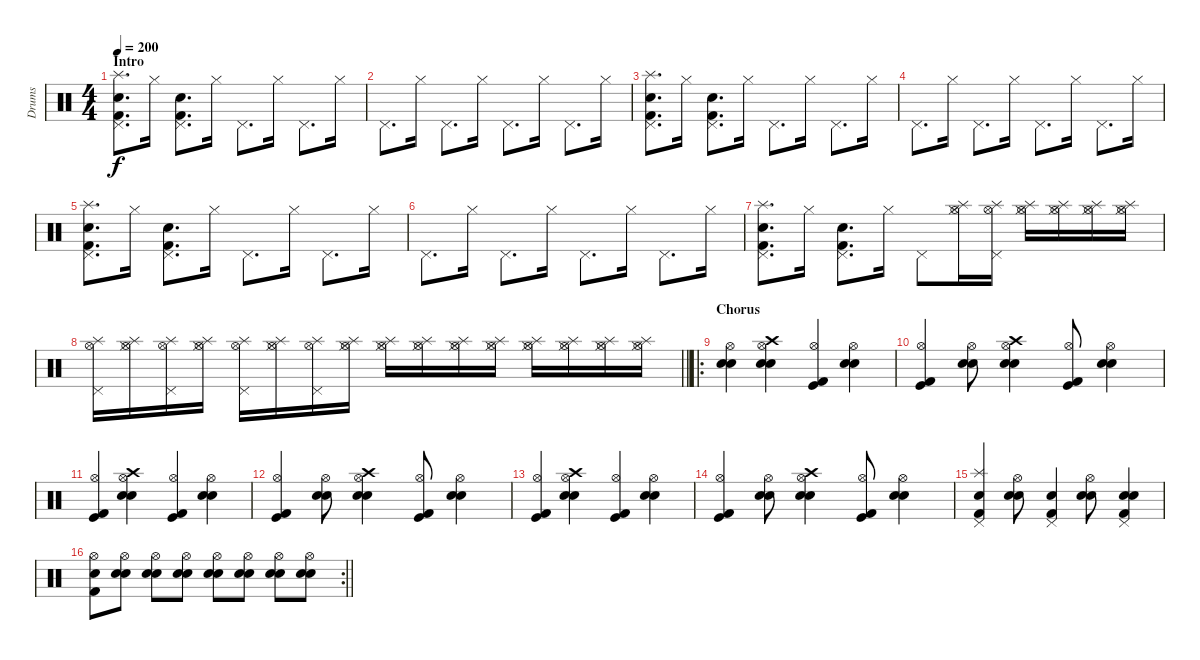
\track ("Drums" "Drums") {instrument percussion}
\staff {score}
\articulation defaults
\ts (4 4)
\section ("" "Intro")
\tempo 200
\clef neutral
\ks c
("Pedal Hi-Hat (hit)" "Splash (hit)" "Snare (hit) 2" "Kick (hit) 2").8{d dy f} "Hi-Hat (closed)".16 ("Pedal Hi-Hat (hit)" "Snare (hit) 2" "Kick (hit) 2").8{d} "Hi-Hat (closed)".16 "Pedal Hi-Hat (hit)".8{d} "Hi-Hat (closed)".16 "Pedal Hi-Hat (hit)".8{d} "Hi-Hat (closed)".16 |
"Pedal Hi-Hat (hit)".8{d} "Hi-Hat (closed)".16 "Pedal Hi-Hat (hit)".8{d} "Hi-Hat (closed)".16 "Pedal Hi-Hat (hit)".8{d} "Hi-Hat (closed)".16 "Pedal Hi-Hat (hit)".8{d} "Hi-Hat (closed)".16 |
("Pedal Hi-Hat (hit)" "Splash (hit)" "Snare (hit) 2" "Kick (hit) 2").8{d} "Hi-Hat (closed)".16 ("Pedal Hi-Hat (hit)" "Snare (hit) 2" "Kick (hit) 2").8{d} "Hi-Hat (closed)".16 "Pedal Hi-Hat (hit)".8{d} "Hi-Hat (closed)".16 "Pedal Hi-Hat (hit)".8{d} "Hi-Hat (closed)".16 |
"Pedal Hi-Hat (hit)".8{d} "Hi-Hat (closed)".16 "Pedal Hi-Hat (hit)".8{d} "Hi-Hat (closed)".16 "Pedal Hi-Hat (hit)".8{d} "Hi-Hat (closed)".16 "Pedal Hi-Hat (hit)".8{d} "Hi-Hat (closed)".16 |
("Pedal Hi-Hat (hit)" "Splash (hit)" "Snare (hit) 2" "Kick (hit) 2").8{d} "Hi-Hat (closed)".16 ("Pedal Hi-Hat (hit)" "Snare (hit) 2" "Kick (hit) 2").8{d} "Hi-Hat (closed)".16 "Pedal Hi-Hat (hit)".8{d} "Hi-Hat (closed)".16 "Pedal Hi-Hat (hit)".8{d} "Hi-Hat (closed)".16 |
"Pedal Hi-Hat (hit)".8{d} "Hi-Hat (closed)".16 "Pedal Hi-Hat (hit)".8{d} "Hi-Hat (closed)".16 "Pedal Hi-Hat (hit)".8{d} "Hi-Hat (closed)".16 "Pedal Hi-Hat (hit)".8{d} "Hi-Hat (closed)".16 |
("Pedal Hi-Hat (hit)" "Splash (hit)" "Snare (hit) 2" "Kick (hit) 2").8{d} "Hi-Hat (closed)".16 ("Pedal Hi-Hat (hit)" "Snare (hit) 2" "Kick (hit) 2").8{d} "Hi-Hat (closed)".16 "Pedal Hi-Hat (hit)".8 ("Hi-Hat (closed)" "Splash (hit)" "Hi-Hat (open)").16{volume 16} ("Pedal Hi-Hat (hit)" "Splash (hit)" "Hi-Hat (open)").16 ("Hi-Hat (closed)" "Splash (hit)" "Hi-Hat (open)").16 ("Hi-Hat (closed)" "Splash (hit)" "Hi-Hat (open)").16 ("Hi-Hat (closed)" "Splash (hit)" "Hi-Hat (open)").16 ("Hi-Hat (closed)" "Splash (hit)" "Hi-Hat (open)").16 |
\barLineRight lightlight
("Pedal Hi-Hat (hit)" "Splash (hit)" "Hi-Hat (open)").16 ("Hi-Hat (closed)" "Splash (hit)" "Hi-Hat (open)").16 ("Pedal Hi-Hat (hit)" "Splash (hit)" "Hi-Hat (open)").16 ("Hi-Hat (closed)" "Splash (hit)" "Hi-Hat (open)").16 ("Pedal Hi-Hat (hit)" "Splash (hit)" "Hi-Hat (open)").16 ("Hi-Hat (closed)" "Splash (hit)" "Hi-Hat (open)").16 ("Pedal Hi-Hat (hit)" "Splash (hit)" "Hi-Hat (open)").16 ("Hi-Hat (closed)" "Splash (hit)" "Hi-Hat (open)").16 ("Hi-Hat (closed)" "Splash (hit)" "Hi-Hat (open)").16 ("Hi-Hat (closed)" "Splash (hit)" "Hi-Hat (open)").16 ("Hi-Hat (closed)" "Splash (hit)" "Hi-Hat (open)").16 ("Hi-Hat (closed)" "Splash (hit)" "Hi-Hat (open)").16 ("Hi-Hat (closed)" "Splash (hit)" "Hi-Hat (open)").16 ("Hi-Hat (closed)" "Splash (hit)" "Hi-Hat (open)").16 ("Hi-Hat (closed)" "Splash (hit)" "Hi-Hat (open)").16 ("Hi-Hat (closed)" "Splash (hit)" "Hi-Hat (open)").16 |
\ro
\section ("" "Chorus")
("Hi-Hat (open)" "Snare (hit) 2" "Electric Snare (hit)").4 ("Hi-Hat (open)" "Crash high (hit)" "Snare (hit) 2" "Electric Snare (hit)").4 ("Hi-Hat (open)" "Kick (hit)" "Kick (hit) 2").4 ("Hi-Hat (open)" "Snare (hit) 2" "Electric Snare (hit)").4 |
("Hi-Hat (open)" "Kick (hit)" "Kick (hit) 2").4 ("Hi-Hat (open)" "Snare (hit) 2" "Electric Snare (hit)").8 ("Hi-Hat (open)" "Crash high (hit)" "Snare (hit) 2" "Electric Snare (hit)").4 ("Hi-Hat (open)" "Kick (hit)" "Kick (hit) 2").8 ("Hi-Hat (open)" "Snare (hit) 2" "Electric Snare (hit)").4 |
("Hi-Hat (open)" "Kick (hit)" "Kick (hit) 2").4 ("Hi-Hat (open)" "Crash high (hit)" "Snare (hit) 2" "Electric Snare (hit)").4 ("Hi-Hat (open)" "Kick (hit)" "Kick (hit) 2").4 ("Hi-Hat (open)" "Snare (hit) 2" "Electric Snare (hit)").4 |
("Hi-Hat (open)" "Kick (hit)" "Kick (hit) 2").4 ("Hi-Hat (open)" "Snare (hit) 2" "Electric Snare (hit)").8 ("Hi-Hat (open)" "Crash high (hit)" "Snare (hit) 2" "Electric Snare (hit)").4 ("Hi-Hat (open)" "Kick (hit)" "Kick (hit) 2").8 ("Hi-Hat (open)" "Snare (hit) 2" "Electric Snare (hit)").4 |
("Hi-Hat (open)" "Kick (hit)" "Kick (hit) 2").4 ("Hi-Hat (open)" "Crash high (hit)" "Snare (hit) 2" "Electric Snare (hit)").4 ("Hi-Hat (open)" "Kick (hit)" "Kick (hit) 2").4 ("Hi-Hat (open)" "Snare (hit) 2" "Electric Snare (hit)").4 |
("Hi-Hat (open)" "Kick (hit)" "Kick (hit) 2").4 ("Hi-Hat (open)" "Snare (hit) 2" "Electric Snare (hit)").8 ("Hi-Hat (open)" "Crash high (hit)" "Snare (hit) 2" "Electric Snare (hit)").4 ("Hi-Hat (open)" "Kick (hit)" "Kick (hit) 2").8 ("Hi-Hat (open)" "Snare (hit) 2" "Electric Snare (hit)").4 |
("Pedal Hi-Hat (hit)" "Splash (hit)" "Snare (hit) 2" "Kick (hit) 2").4 ("Hi-Hat (open)" "Snare (hit) 2" "Electric Snare (hit)").8 ("Pedal Hi-Hat (hit)" "Snare (hit) 2" "Kick (hit) 2").4 ("Hi-Hat (open)" "Snare (hit) 2" "Electric Snare (hit)").8 ("Pedal Hi-Hat (hit)" "Snare (hit) 2" "Electric Snare (hit)" "Kick (hit) 2").4 |
\rc 2
\barLineRight lightlight
("Hi-Hat (open)" "Snare (hit) 2" "Kick (hit) 2").8 ("Hi-Hat (open)" "Snare (hit) 2" "Electric Snare (hit)").8 ("Hi-Hat (open)" "Snare (hit) 2" "Electric Snare (hit)").8 ("Hi-Hat (open)" "Snare (hit) 2" "Electric Snare (hit)").8 ("Hi-Hat (open)" "Snare (hit) 2" "Electric Snare (hit)").8 ("Hi-Hat (open)" "Snare (hit) 2" "Electric Snare (hit)").8 ("Hi-Hat (open)" "Snare (hit) 2" "Electric Snare (hit)").8 ("Hi-Hat (open)" "Snare (hit) 2" "Electric Snare (hit)").8
